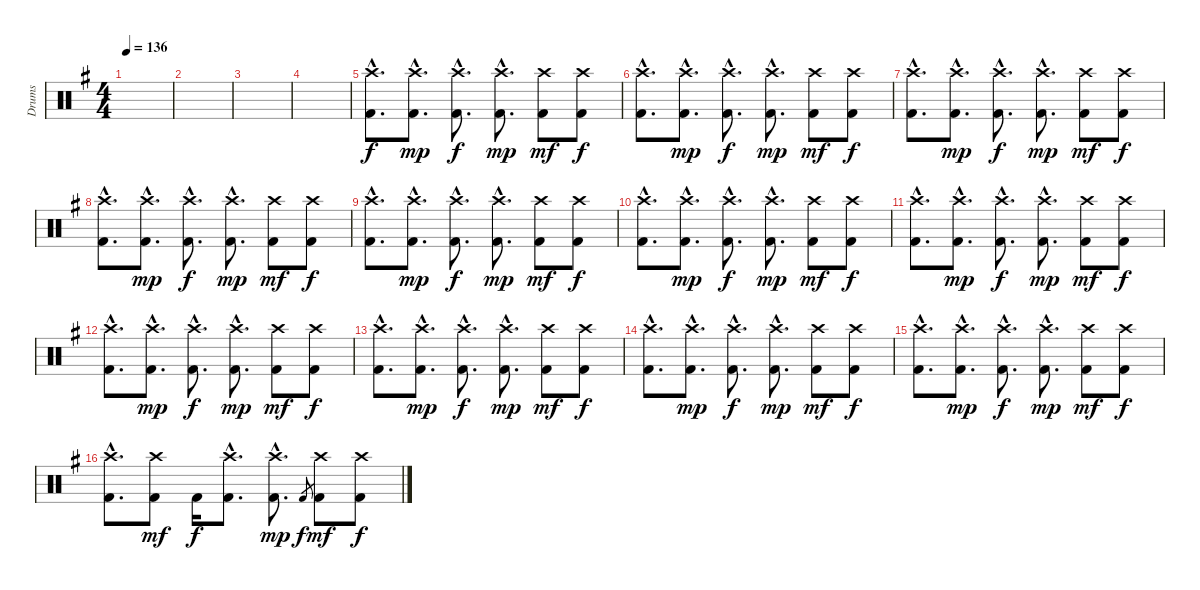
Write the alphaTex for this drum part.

\track ("Drums" "Drums") {instrument percussion}
\staff {score}
\articulation defaults
\ts (4 4)
\tempo 136
\clef neutral
\ks g
|
|
|
|
("Crash high (hit)"{hac} "Kick (hit) 2"{hac}).8{d} ("Crash high (hit)"{hac} "Kick (hit) 2"{hac}).8{d dy mp} ("Crash high (hit)"{hac} "Kick (hit) 2"{hac}).8{d dy f} ("Crash high (hit)"{hac} "Kick (hit) 2"{hac}).8{d dy mp} ("Crash high (hit)" "Kick (hit) 2").8{dy mf} ("Crash high (hit)" "Kick (hit) 2").8{dy f} |
("Crash high (hit)"{hac} "Kick (hit) 2"{hac}).8{d} ("Crash high (hit)"{hac} "Kick (hit) 2"{hac}).8{d dy mp} ("Crash high (hit)"{hac} "Kick (hit) 2"{hac}).8{d dy f} ("Crash high (hit)"{hac} "Kick (hit) 2"{hac}).8{d dy mp} ("Crash high (hit)" "Kick (hit) 2").8{dy mf} ("Crash high (hit)" "Kick (hit) 2").8{dy f} |
("Crash high (hit)"{hac} "Kick (hit) 2"{hac}).8{d} ("Crash high (hit)"{hac} "Kick (hit) 2"{hac}).8{d dy mp} ("Crash high (hit)"{hac} "Kick (hit) 2"{hac}).8{d dy f} ("Crash high (hit)"{hac} "Kick (hit) 2"{hac}).8{d dy mp} ("Crash high (hit)" "Kick (hit) 2").8{dy mf} ("Crash high (hit)" "Kick (hit) 2").8{dy f} |
("Crash high (hit)"{hac} "Kick (hit) 2"{hac}).8{d} ("Crash high (hit)"{hac} "Kick (hit) 2"{hac}).8{d dy mp} ("Crash high (hit)"{hac} "Kick (hit) 2"{hac}).8{d dy f} ("Crash high (hit)"{hac} "Kick (hit) 2"{hac}).8{d dy mp} ("Crash high (hit)" "Kick (hit) 2").8{dy mf} ("Crash high (hit)" "Kick (hit) 2").8{dy f} |
("Crash high (hit)"{hac} "Kick (hit) 2"{hac}).8{d} ("Crash high (hit)"{hac} "Kick (hit) 2"{hac}).8{d dy mp} ("Crash high (hit)"{hac} "Kick (hit) 2"{hac}).8{d dy f} ("Crash high (hit)"{hac} "Kick (hit) 2"{hac}).8{d dy mp} ("Crash high (hit)" "Kick (hit) 2").8{dy mf} ("Crash high (hit)" "Kick (hit) 2").8{dy f} |
("Crash high (hit)"{hac} "Kick (hit) 2"{hac}).8{d} ("Crash high (hit)"{hac} "Kick (hit) 2"{hac}).8{d dy mp} ("Crash high (hit)"{hac} "Kick (hit) 2"{hac}).8{d dy f} ("Crash high (hit)"{hac} "Kick (hit) 2"{hac}).8{d dy mp} ("Crash high (hit)" "Kick (hit) 2").8{dy mf} ("Crash high (hit)" "Kick (hit) 2").8{dy f} |
("Crash high (hit)"{hac} "Kick (hit) 2"{hac}).8{d} ("Crash high (hit)"{hac} "Kick (hit) 2"{hac}).8{d dy mp} ("Crash high (hit)"{hac} "Kick (hit) 2"{hac}).8{d dy f} ("Crash high (hit)"{hac} "Kick (hit) 2"{hac}).8{d dy mp} ("Crash high (hit)" "Kick (hit) 2").8{dy mf} ("Crash high (hit)" "Kick (hit) 2").8{dy f} |
("Crash high (hit)"{hac} "Kick (hit) 2"{hac}).8{d} ("Crash high (hit)"{hac} "Kick (hit) 2"{hac}).8{d dy mp} ("Crash high (hit)"{hac} "Kick (hit) 2"{hac}).8{d dy f} ("Crash high (hit)"{hac} "Kick (hit) 2"{hac}).8{d dy mp} ("Crash high (hit)" "Kick (hit) 2").8{dy mf} ("Crash high (hit)" "Kick (hit) 2").8{dy f} |
("Crash high (hit)"{hac} "Kick (hit) 2"{hac}).8{d} ("Crash high (hit)"{hac} "Kick (hit) 2"{hac}).8{d dy mp} ("Crash high (hit)"{hac} "Kick (hit) 2"{hac}).8{d dy f} ("Crash high (hit)"{hac} "Kick (hit) 2"{hac}).8{d dy mp} ("Crash high (hit)" "Kick (hit) 2").8{dy mf} ("Crash high (hit)" "Kick (hit) 2").8{dy f} |
("Crash high (hit)"{hac} "Kick (hit) 2"{hac}).8{d} ("Crash high (hit)"{hac} "Kick (hit) 2"{hac}).8{d dy mp} ("Crash high (hit)"{hac} "Kick (hit) 2"{hac}).8{d dy f} ("Crash high (hit)"{hac} "Kick (hit) 2"{hac}).8{d dy mp} ("Crash high (hit)" "Kick (hit) 2").8{dy mf} ("Crash high (hit)" "Kick (hit) 2").8{dy f} |
("Crash high (hit)"{hac} "Kick (hit) 2"{hac}).8{d} ("Crash high (hit)"{hac} "Kick (hit) 2"{hac}).8{d dy mp} ("Crash high (hit)"{hac} "Kick (hit) 2"{hac}).8{d dy f} ("Crash high (hit)"{hac} "Kick (hit) 2"{hac}).8{d dy mp} ("Crash high (hit)" "Kick (hit) 2").8{dy mf} ("Crash high (hit)" "Kick (hit) 2").8{dy f} |
("Crash high (hit)"{hac} "Kick (hit) 2"{hac}).8{d} ("Crash high (hit)" "Kick (hit) 2").8{dy mf} "Kick (hit) 2".16{dy f} ("Crash high (hit)"{hac} "Kick (hit) 2"{hac}).8{d} ("Crash high (hit)"{hac} "Kick (hit) 2"{hac}).8{d dy mp} "Kick (hit) 2".8{gr dy f} ("Crash high (hit)" "Kick (hit) 2").8{dy mf} ("Crash high (hit)" "Kick (hit) 2").8{dy f}
